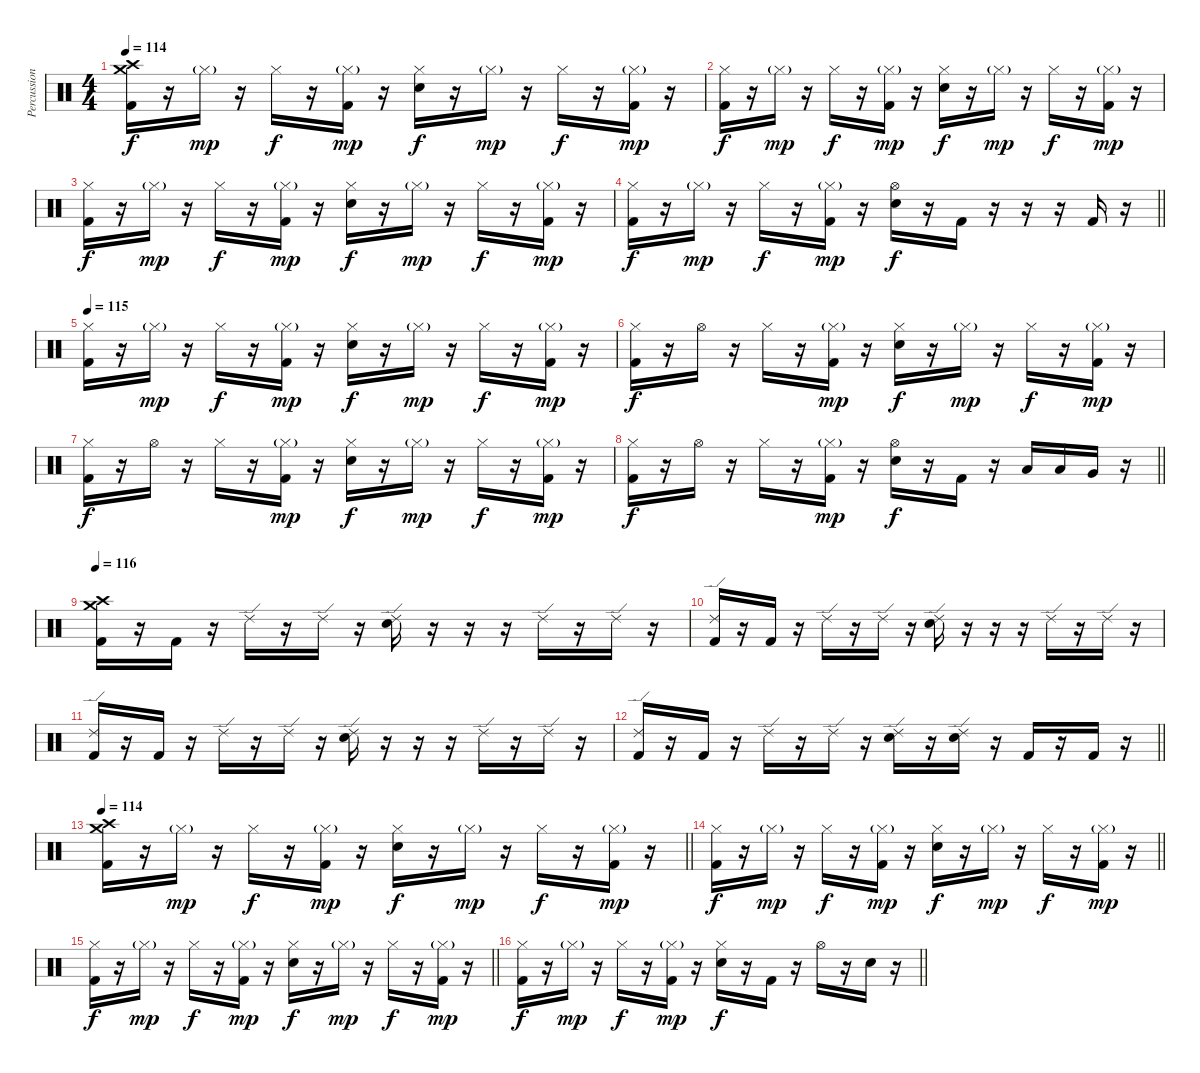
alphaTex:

\track ("Percussion" "Percussion") {instrument percussion}
\staff {score}
\articulation defaults
\ts (4 4)
\section ("" "")
\tempo 114
\clef neutral
\ks c
("Crash medium (hit)" "Crash high (hit)" "Kick (hit) 2").16{dy f} r.16 "Hi-Hat (closed)"{g}.16{dy mp} r.16 "Hi-Hat (closed)".16{dy f} r.16 ("Hi-Hat (closed)"{g} "Kick (hit) 2").16{dy mp} r.16 ("Hi-Hat (closed)" "Electric Snare (hit)").16{dy f} r.16 "Hi-Hat (closed)"{g}.16{dy mp} r.16 "Hi-Hat (closed)".16{dy f} r.16 ("Hi-Hat (closed)"{g} "Kick (hit) 2").16{dy mp} r.16 |
("Hi-Hat (closed)" "Kick (hit) 2").16{dy f} r.16 "Hi-Hat (closed)"{g}.16{dy mp} r.16 "Hi-Hat (closed)".16{dy f} r.16 ("Hi-Hat (closed)"{g} "Kick (hit) 2").16{dy mp} r.16 ("Hi-Hat (closed)" "Electric Snare (hit)").16{dy f} r.16 "Hi-Hat (closed)"{g}.16{dy mp} r.16 "Hi-Hat (closed)".16{dy f} r.16 ("Hi-Hat (closed)"{g} "Kick (hit) 2").16{dy mp} r.16 |
("Hi-Hat (closed)" "Kick (hit) 2").16{dy f} r.16 "Hi-Hat (closed)"{g}.16{dy mp} r.16 "Hi-Hat (closed)".16{dy f} r.16 ("Hi-Hat (closed)"{g} "Kick (hit) 2").16{dy mp} r.16 ("Hi-Hat (closed)" "Electric Snare (hit)").16{dy f} r.16 "Hi-Hat (closed)"{g}.16{dy mp} r.16 "Hi-Hat (closed)".16{dy f} r.16 ("Hi-Hat (closed)"{g} "Kick (hit) 2").16{dy mp} r.16 |
\barLineRight lightlight
("Hi-Hat (closed)" "Kick (hit) 2").16{dy f} r.16 "Hi-Hat (closed)"{g}.16{dy mp} r.16 "Hi-Hat (closed)".16{dy f} r.16 ("Hi-Hat (closed)"{g} "Kick (hit) 2").16{dy mp} r.16 ("Hi-Hat (open)" "Electric Snare (hit)").16{dy f} r.16 "Kick (hit) 2".16 r.16 r.16 r.16 "Kick (hit) 2".16 r.16 |
\section ("" "")
\tempo 115
("Hi-Hat (closed)" "Kick (hit) 2").16 r.16 "Hi-Hat (closed)"{g}.16{dy mp} r.16 "Hi-Hat (closed)".16{dy f} r.16 ("Hi-Hat (closed)"{g} "Kick (hit) 2").16{dy mp} r.16 ("Hi-Hat (closed)" "Electric Snare (hit)").16{dy f} r.16 "Hi-Hat (closed)"{g}.16{dy mp} r.16 "Hi-Hat (closed)".16{dy f} r.16 ("Hi-Hat (closed)"{g} "Kick (hit) 2").16{dy mp} r.16 |
("Hi-Hat (closed)" "Kick (hit) 2").16{dy f} r.16 "Hi-Hat (open)".16 r.16 "Hi-Hat (closed)".16 r.16 ("Hi-Hat (closed)"{g} "Kick (hit) 2").16{dy mp} r.16 ("Hi-Hat (closed)" "Electric Snare (hit)").16{dy f} r.16 "Hi-Hat (closed)"{g}.16{dy mp} r.16 "Hi-Hat (closed)".16{dy f} r.16 ("Hi-Hat (closed)"{g} "Kick (hit) 2").16{dy mp} r.16 |
("Hi-Hat (closed)" "Kick (hit) 2").16{dy f} r.16 "Hi-Hat (open)".16 r.16 "Hi-Hat (closed)".16 r.16 ("Hi-Hat (closed)"{g} "Kick (hit) 2").16{dy mp} r.16 ("Hi-Hat (closed)" "Electric Snare (hit)").16{dy f} r.16 "Hi-Hat (closed)"{g}.16{dy mp} r.16 "Hi-Hat (closed)".16{dy f} r.16 ("Hi-Hat (closed)"{g} "Kick (hit) 2").16{dy mp} r.16 |
\barLineRight lightlight
("Hi-Hat (closed)" "Kick (hit) 2").16{dy f} r.16 "Hi-Hat (open)".16 r.16 "Hi-Hat (closed)".16 r.16 ("Hi-Hat (closed)"{g} "Kick (hit) 2").16{dy mp} r.16 ("Hi-Hat (open)" "Electric Snare (hit)").16{dy f} r.16 "Kick (hit) 2".16 r.16 "Low Tom (hit)".16 "Low Tom (hit)".16 "Very Low Tom (hit)".16 r.16 |
\section ("" "")
\tempo 116
("Crash medium (hit)" "Crash high (hit)" "Kick (hit) 2").16 r.16 "Kick (hit) 2".16 r.16 "Ride (edge) 2".16 r.16 "Ride (edge) 2".16 r.16 ("Ride (edge) 2" "Electric Snare (hit)").16 r.16 r.16 r.16 "Ride (edge) 2".16 r.16 "Ride (edge) 2".16 r.16 |
("Ride (edge) 2" "Kick (hit) 2").16 r.16 "Kick (hit) 2".16 r.16 "Ride (edge) 2".16 r.16 "Ride (edge) 2".16 r.16 ("Ride (edge) 2" "Electric Snare (hit)").16 r.16 r.16 r.16 "Ride (edge) 2".16 r.16 "Ride (edge) 2".16 r.16 |
("Ride (edge) 2" "Kick (hit) 2").16 r.16 "Kick (hit) 2".16 r.16 "Ride (edge) 2".16 r.16 "Ride (edge) 2".16 r.16 ("Ride (edge) 2" "Electric Snare (hit)").16 r.16 r.16 r.16 "Ride (edge) 2".16 r.16 "Ride (edge) 2".16 r.16 |
\barLineRight lightlight
("Ride (edge) 2" "Kick (hit) 2").16 r.16 "Kick (hit) 2".16 r.16 "Ride (edge) 2".16 r.16 "Ride (edge) 2".16 r.16 ("Ride (edge) 2" "Electric Snare (hit)").16 r.16 ("Ride (edge) 2" "Electric Snare (hit)").16 r.16 "Kick (hit) 2".16 r.16 "Kick (hit) 2".16 r.16 |
\section ("" "")
\tempo 114
\barLineRight lightlight
("Crash medium (hit)" "Crash high (hit)" "Kick (hit) 2").16 r.16 "Hi-Hat (closed)"{g}.16{dy mp} r.16 "Hi-Hat (closed)".16{dy f} r.16 ("Hi-Hat (closed)"{g} "Kick (hit) 2").16{dy mp} r.16 ("Hi-Hat (closed)" "Electric Snare (hit)").16{dy f} r.16 "Hi-Hat (closed)"{g}.16{dy mp} r.16 "Hi-Hat (closed)".16{dy f} r.16 ("Hi-Hat (closed)"{g} "Kick (hit) 2").16{dy mp} r.16 |
\barLineRight lightlight
("Hi-Hat (closed)" "Kick (hit) 2").16{dy f} r.16 "Hi-Hat (closed)"{g}.16{dy mp} r.16 "Hi-Hat (closed)".16{dy f} r.16 ("Hi-Hat (closed)"{g} "Kick (hit) 2").16{dy mp} r.16 ("Hi-Hat (closed)" "Electric Snare (hit)").16{dy f} r.16 "Hi-Hat (closed)"{g}.16{dy mp} r.16 "Hi-Hat (closed)".16{dy f} r.16 ("Hi-Hat (closed)"{g} "Kick (hit) 2").16{dy mp} r.16 |
\barLineRight lightlight
("Hi-Hat (closed)" "Kick (hit) 2").16{dy f} r.16 "Hi-Hat (closed)"{g}.16{dy mp} r.16 "Hi-Hat (closed)".16{dy f} r.16 ("Hi-Hat (closed)"{g} "Kick (hit) 2").16{dy mp} r.16 ("Hi-Hat (closed)" "Electric Snare (hit)").16{dy f} r.16 "Hi-Hat (closed)"{g}.16{dy mp} r.16 "Hi-Hat (closed)".16{dy f} r.16 ("Hi-Hat (closed)"{g} "Kick (hit) 2").16{dy mp} r.16 |
\barLineRight lightlight
("Hi-Hat (closed)" "Kick (hit) 2").16{dy f} r.16 "Hi-Hat (closed)"{g}.16{dy mp} r.16 "Hi-Hat (closed)".16{dy f} r.16 ("Hi-Hat (closed)"{g} "Kick (hit) 2").16{dy mp} r.16 ("Hi-Hat (closed)" "Electric Snare (hit)").16{dy f} r.16 "Kick (hit) 2".16 r.16 "Hi-Hat (open)".16 r.16 "Electric Snare (hit)".16 r.16
